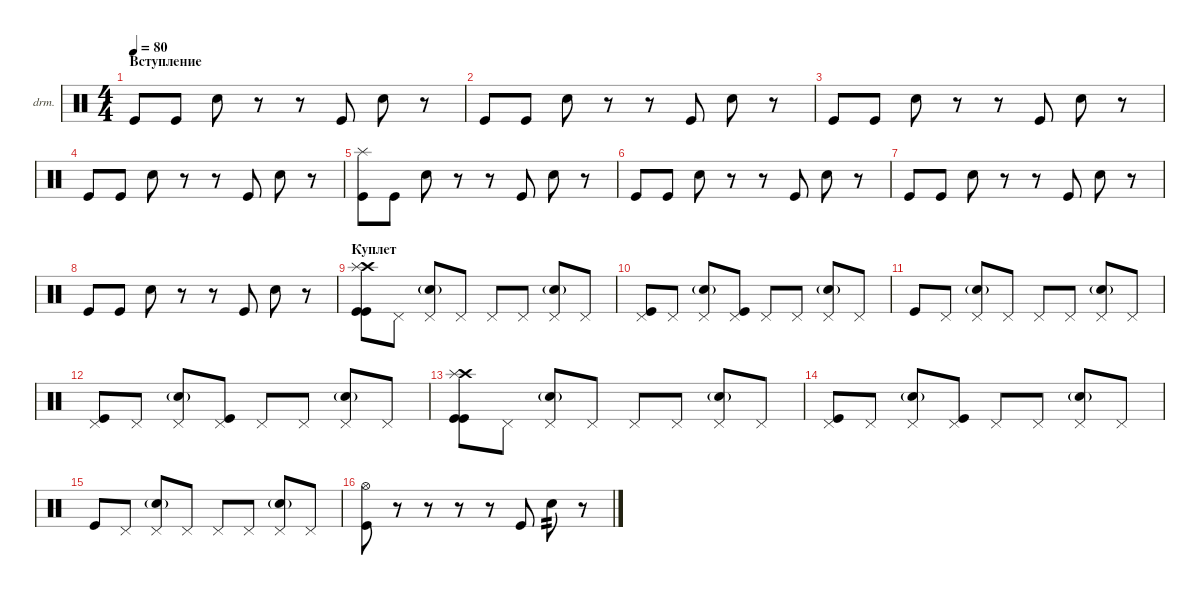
\defaultSystemsLayout 4
\hideDynamics
\bracketExtendMode nobrackets
\firstSystemTrackNameOrientation horizontal
\otherSystemsTrackNameOrientation horizontal
\track ("Drumkit" "drm.") {instrument percussion}
\staff {score}
\articulation defaults
\ts (4 4)
\section ("" "Вступление")
\tempo 80
\clef neutral
\ks c "Kick (hit)".8{dy mf} "Kick (hit)".8 "Snare (hit) 2".8
r.8 r.8 "Kick (hit)".8 "Snare (hit) 2".8 r.8 |
"Kick (hit)".8 "Kick (hit)".8 "Snare (hit) 2".8 r.8 r.8 "Kick (hit)".8 "Snare (hit) 2".8 r.8 |
"Kick (hit)".8 "Kick (hit)".8 "Snare (hit) 2".8 r.8 r.8 "Kick (hit)".8 "Snare (hit) 2".8 r.8 |
"Kick (hit)".8 "Kick (hit)".8 "Snare (hit) 2".8 r.8 r.8 "Kick (hit)".8 "Snare (hit) 2".8 r.8 |
("Kick (hit)" "Splash (hit)").8 "Kick (hit)".8 "Snare (hit) 2".8 r.8 r.8 "Kick (hit)".8 "Snare (hit) 2".8 r.8 |
"Kick (hit)".8 "Kick (hit)".8 "Snare (hit) 2".8 r.8 r.8 "Kick (hit)".8 "Snare (hit) 2".8 r.8 |
"Kick (hit)".8 "Kick (hit)".8 "Snare (hit) 2".8 r.8 r.8 "Kick (hit)".8 "Snare (hit) 2".8 r.8 |
"Kick (hit)".8 "Kick (hit)".8 "Snare (hit) 2".8 r.8 r.8 "Kick (hit)".8 "Snare (hit) 2".8 r.8 |
\section ("" "Куплет ")
("Kick (hit)" "Crash high (hit)" "Splash (hit)" "Kick (hit)").8 "Pedal Hi-Hat (hit)".8 ("Snare (hit) 2"{g} "Pedal Hi-Hat (hit)").8 "Pedal Hi-Hat (hit)".8 "Pedal Hi-Hat (hit)".8 "Pedal Hi-Hat (hit)".8 ("Snare (hit) 2"{g} "Pedal Hi-Hat (hit)").8 "Pedal Hi-Hat (hit)".8 |
("Kick (hit)" "Pedal Hi-Hat (hit)").8 "Pedal Hi-Hat (hit)".8 ("Snare (hit) 2"{g} "Pedal Hi-Hat (hit)").8 ("Kick (hit)" "Pedal Hi-Hat (hit)").8 "Pedal Hi-Hat (hit)".8 "Pedal Hi-Hat (hit)".8 ("Snare (hit) 2"{g} "Pedal Hi-Hat (hit)").8 "Pedal Hi-Hat (hit)".8 |
"Kick (hit)".8 "Pedal Hi-Hat (hit)".8 ("Snare (hit) 2"{g} "Pedal Hi-Hat (hit)").8 "Pedal Hi-Hat (hit)".8 "Pedal Hi-Hat (hit)".8 "Pedal Hi-Hat (hit)".8 ("Snare (hit) 2"{g} "Pedal Hi-Hat (hit)").8 "Pedal Hi-Hat (hit)".8 |
("Kick (hit)" "Pedal Hi-Hat (hit)").8 "Pedal Hi-Hat (hit)".8 ("Snare (hit) 2"{g} "Pedal Hi-Hat (hit)").8 ("Kick (hit)" "Pedal Hi-Hat (hit)").8 "Pedal Hi-Hat (hit)".8 "Pedal Hi-Hat (hit)".8 ("Snare (hit) 2"{g} "Pedal Hi-Hat (hit)").8 "Pedal Hi-Hat (hit)".8 |
("Kick (hit)" "Crash high (hit)" "Splash (hit)" "Kick (hit)").8 "Pedal Hi-Hat (hit)".8 ("Snare (hit) 2"{g} "Pedal Hi-Hat (hit)").8 "Pedal Hi-Hat (hit)".8 "Pedal Hi-Hat (hit)".8 "Pedal Hi-Hat (hit)".8 ("Snare (hit) 2"{g} "Pedal Hi-Hat (hit)").8 "Pedal Hi-Hat (hit)".8 |
("Kick (hit)" "Pedal Hi-Hat (hit)").8 "Pedal Hi-Hat (hit)".8 ("Snare (hit) 2"{g} "Pedal Hi-Hat (hit)").8 ("Kick (hit)" "Pedal Hi-Hat (hit)").8 "Pedal Hi-Hat (hit)".8 "Pedal Hi-Hat (hit)".8 ("Snare (hit) 2"{g} "Pedal Hi-Hat (hit)").8 "Pedal Hi-Hat (hit)".8 |
"Kick (hit)".8 "Pedal Hi-Hat (hit)".8 ("Snare (hit) 2"{g} "Pedal Hi-Hat (hit)").8 "Pedal Hi-Hat (hit)".8 "Pedal Hi-Hat (hit)".8 "Pedal Hi-Hat (hit)".8 ("Snare (hit) 2"{g} "Pedal Hi-Hat (hit)").8 "Pedal Hi-Hat (hit)".8 |
("Kick (hit)" "Hi-Hat (open)").8 r.8 r.8 r.8 r.8 "Kick (hit)".8 "Snare (hit) 2".8{tp 2} r.8
